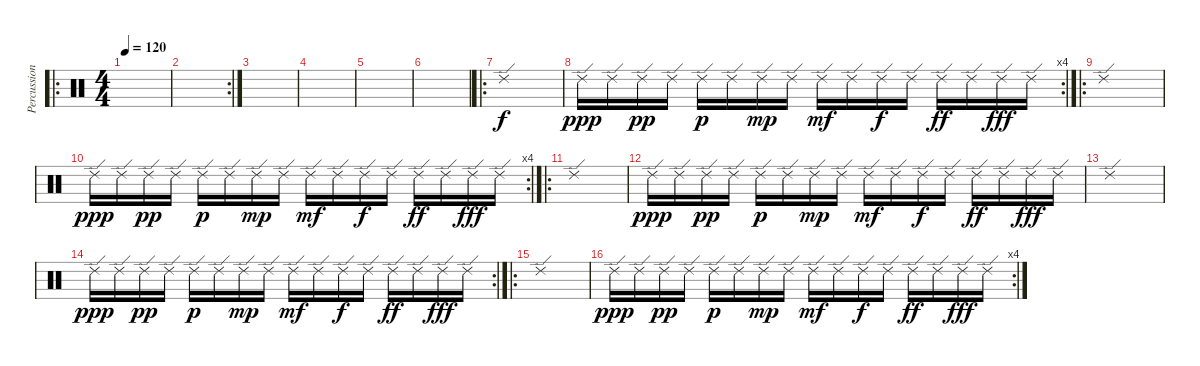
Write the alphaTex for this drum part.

\track ("Percussion" "Percussion") {instrument percussion}
\staff {score}
\articulation defaults
\ro
\ts (4 4)
\tempo 120
\clef neutral
\ks c
|
\rc 2
|
|
|
|
|
\ro "Ride (edge) 2".1
|
\rc 4 "Ride (edge) 2".16{dy ppp} "Ride (edge) 2".16 "Ride (edge) 2".16{dy pp} "Ride (edge) 2".16 "Ride (edge) 2".16{dy p} "Ride (edge) 2".16 "Ride (edge) 2".16{dy mp} "Ride (edge) 2".16 "Ride (edge) 2".16{dy mf} "Ride (edge) 2".16 "Ride (edge) 2".16{dy f} "Ride (edge) 2".16 "Ride (edge) 2".16{dy ff} "Ride (edge) 2".16 "Ride (edge) 2".16{dy fff} "Ride (edge) 2".16
|
\ro "Ride (edge) 2".1
|
\rc 4 "Ride (edge) 2".16{dy ppp} "Ride (edge) 2".16 "Ride (edge) 2".16{dy pp} "Ride (edge) 2".16 "Ride (edge) 2".16{dy p} "Ride (edge) 2".16 "Ride (edge) 2".16{dy mp} "Ride (edge) 2".16 "Ride (edge) 2".16{dy mf} "Ride (edge) 2".16 "Ride (edge) 2".16{dy f} "Ride (edge) 2".16 "Ride (edge) 2".16{dy ff} "Ride (edge) 2".16 "Ride (edge) 2".16{dy fff} "Ride (edge) 2".16
|
\ro "Ride (edge) 2".1
|
"Ride (edge) 2".16{dy ppp} "Ride (edge) 2".16 "Ride (edge) 2".16{dy pp} "Ride (edge) 2".16 "Ride (edge) 2".16{dy p} "Ride (edge) 2".16 "Ride (edge) 2".16{dy mp} "Ride (edge) 2".16 "Ride (edge) 2".16{dy mf} "Ride (edge) 2".16 "Ride (edge) 2".16{dy f} "Ride (edge) 2".16 "Ride (edge) 2".16{dy ff} "Ride (edge) 2".16 "Ride (edge) 2".16{dy fff} "Ride (edge) 2".16 |
"Ride (edge) 2".1 |
\rc 2 "Ride (edge) 2".16{dy ppp} "Ride (edge) 2".16 "Ride (edge) 2".16{dy pp} "Ride (edge) 2".16 "Ride (edge) 2".16{dy p} "Ride (edge) 2".16 "Ride (edge) 2".16{dy mp} "Ride (edge) 2".16 "Ride (edge) 2".16{dy mf} "Ride (edge) 2".16 "Ride (edge) 2".16{dy f} "Ride (edge) 2".16 "Ride (edge) 2".16{dy ff} "Ride (edge) 2".16 "Ride (edge) 2".16{dy fff} "Ride (edge) 2".16
|
\ro "Ride (edge) 2".1
|
\rc 4 "Ride (edge) 2".16{dy ppp} "Ride (edge) 2".16 "Ride (edge) 2".16{dy pp} "Ride (edge) 2".16 "Ride (edge) 2".16{dy p} "Ride (edge) 2".16 "Ride (edge) 2".16{dy mp} "Ride (edge) 2".16 "Ride (edge) 2".16{dy mf} "Ride (edge) 2".16 "Ride (edge) 2".16{dy f} "Ride (edge) 2".16 "Ride (edge) 2".16{dy ff} "Ride (edge) 2".16 "Ride (edge) 2".16{dy fff} "Ride (edge) 2".16
